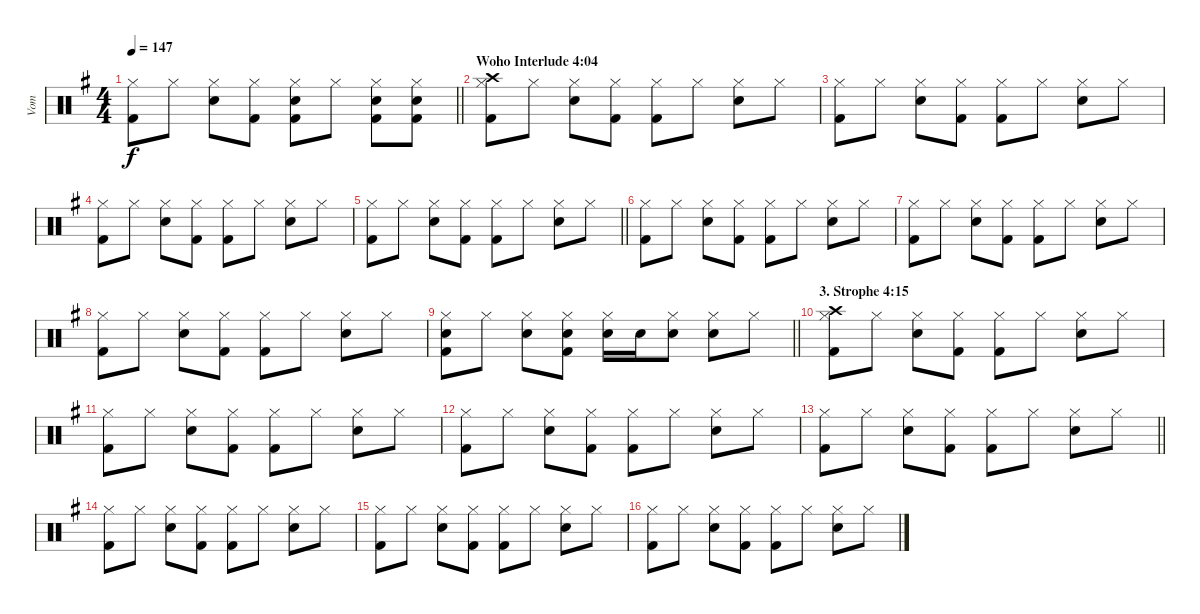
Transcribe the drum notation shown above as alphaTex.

\track ("Vom" "Vom") {instrument percussion}
\staff {score}
\articulation defaults
\ts (4 4)
\tempo 147
\clef neutral
\barLineRight lightlight
\ks g
("Hi-Hat (closed)" "Kick (hit) 2").8{dy f} "Hi-Hat (closed)".8 ("Hi-Hat (closed)" "Snare (hit) 2").8 ("Hi-Hat (closed)" "Kick (hit) 2").8 ("Hi-Hat (closed)" "Snare (hit) 2" "Kick (hit) 2").8 "Hi-Hat (closed)".8 ("Hi-Hat (closed)" "Snare (hit) 2" "Kick (hit) 2").8 ("Hi-Hat (closed)" "Snare (hit) 2" "Kick (hit) 2").8 |
\section ("" "Woho Interlude 4:04")
("Crash high (hit)" "Hi-Hat (closed)" "Kick (hit) 2").8 "Hi-Hat (closed)".8 ("Hi-Hat (closed)" "Snare (hit) 2").8 ("Hi-Hat (closed)" "Kick (hit) 2").8 ("Hi-Hat (closed)" "Kick (hit) 2").8 "Hi-Hat (closed)".8 ("Hi-Hat (closed)" "Snare (hit) 2").8 "Hi-Hat (closed)".8 |
("Hi-Hat (closed)" "Kick (hit) 2").8 "Hi-Hat (closed)".8 ("Hi-Hat (closed)" "Snare (hit) 2").8 ("Hi-Hat (closed)" "Kick (hit) 2").8 ("Hi-Hat (closed)" "Kick (hit) 2").8 "Hi-Hat (closed)".8 ("Hi-Hat (closed)" "Snare (hit) 2").8 "Hi-Hat (closed)".8 |
("Hi-Hat (closed)" "Kick (hit) 2").8 "Hi-Hat (closed)".8 ("Hi-Hat (closed)" "Snare (hit) 2").8 ("Hi-Hat (closed)" "Kick (hit) 2").8 ("Hi-Hat (closed)" "Kick (hit) 2").8 "Hi-Hat (closed)".8 ("Hi-Hat (closed)" "Snare (hit) 2").8 "Hi-Hat (closed)".8 |
\barLineRight lightlight
("Hi-Hat (closed)" "Kick (hit) 2").8 "Hi-Hat (closed)".8 ("Hi-Hat (closed)" "Snare (hit) 2").8 ("Hi-Hat (closed)" "Kick (hit) 2").8 ("Hi-Hat (closed)" "Kick (hit) 2").8 "Hi-Hat (closed)".8 ("Hi-Hat (closed)" "Snare (hit) 2").8 "Hi-Hat (closed)".8 |
("Hi-Hat (closed)" "Kick (hit) 2").8 "Hi-Hat (closed)".8 ("Hi-Hat (closed)" "Snare (hit) 2").8 ("Hi-Hat (closed)" "Kick (hit) 2").8 ("Hi-Hat (closed)" "Kick (hit) 2").8 "Hi-Hat (closed)".8 ("Hi-Hat (closed)" "Snare (hit) 2").8 "Hi-Hat (closed)".8 |
("Hi-Hat (closed)" "Kick (hit) 2").8 "Hi-Hat (closed)".8 ("Hi-Hat (closed)" "Snare (hit) 2").8 ("Hi-Hat (closed)" "Kick (hit) 2").8 ("Hi-Hat (closed)" "Kick (hit) 2").8 "Hi-Hat (closed)".8 ("Hi-Hat (closed)" "Snare (hit) 2").8 "Hi-Hat (closed)".8 |
("Hi-Hat (closed)" "Kick (hit) 2").8 "Hi-Hat (closed)".8 ("Hi-Hat (closed)" "Snare (hit) 2").8 ("Hi-Hat (closed)" "Kick (hit) 2").8 ("Hi-Hat (closed)" "Kick (hit) 2").8 "Hi-Hat (closed)".8 ("Hi-Hat (closed)" "Snare (hit) 2").8 "Hi-Hat (closed)".8 |
\barLineRight lightlight
("Hi-Hat (closed)" "Snare (hit) 2" "Kick (hit) 2").8 "Hi-Hat (closed)".8 ("Hi-Hat (closed)" "Snare (hit) 2").8 ("Hi-Hat (closed)" "Snare (hit) 2" "Kick (hit) 2").8 ("Hi-Hat (closed)" "Snare (hit) 2").16 "Snare (hit) 2".16 ("Hi-Hat (closed)" "Snare (hit) 2").8 ("Hi-Hat (closed)" "Snare (hit) 2").8 "Hi-Hat (closed)".8 |
\section ("" "3. Strophe 4:15")
("Crash high (hit)" "Hi-Hat (closed)" "Kick (hit) 2").8 "Hi-Hat (closed)".8 ("Hi-Hat (closed)" "Snare (hit) 2").8 ("Hi-Hat (closed)" "Kick (hit) 2").8 ("Hi-Hat (closed)" "Kick (hit) 2").8 "Hi-Hat (closed)".8 ("Hi-Hat (closed)" "Snare (hit) 2").8 "Hi-Hat (closed)".8 |
("Hi-Hat (closed)" "Kick (hit) 2").8 "Hi-Hat (closed)".8 ("Hi-Hat (closed)" "Snare (hit) 2").8 ("Hi-Hat (closed)" "Kick (hit) 2").8 ("Hi-Hat (closed)" "Kick (hit) 2").8 "Hi-Hat (closed)".8 ("Hi-Hat (closed)" "Snare (hit) 2").8 "Hi-Hat (closed)".8 |
("Hi-Hat (closed)" "Kick (hit) 2").8 "Hi-Hat (closed)".8 ("Hi-Hat (closed)" "Snare (hit) 2").8 ("Hi-Hat (closed)" "Kick (hit) 2").8 ("Hi-Hat (closed)" "Kick (hit) 2").8 "Hi-Hat (closed)".8 ("Hi-Hat (closed)" "Snare (hit) 2").8 "Hi-Hat (closed)".8 |
\barLineRight lightlight
("Hi-Hat (closed)" "Kick (hit) 2").8 "Hi-Hat (closed)".8 ("Hi-Hat (closed)" "Snare (hit) 2").8 ("Hi-Hat (closed)" "Kick (hit) 2").8 ("Hi-Hat (closed)" "Kick (hit) 2").8 "Hi-Hat (closed)".8 ("Hi-Hat (closed)" "Snare (hit) 2").8 "Hi-Hat (closed)".8 |
("Hi-Hat (closed)" "Kick (hit) 2").8 "Hi-Hat (closed)".8 ("Hi-Hat (closed)" "Snare (hit) 2").8 ("Hi-Hat (closed)" "Kick (hit) 2").8 ("Hi-Hat (closed)" "Kick (hit) 2").8 "Hi-Hat (closed)".8 ("Hi-Hat (closed)" "Snare (hit) 2").8 "Hi-Hat (closed)".8 |
("Hi-Hat (closed)" "Kick (hit) 2").8 "Hi-Hat (closed)".8 ("Hi-Hat (closed)" "Snare (hit) 2").8 ("Hi-Hat (closed)" "Kick (hit) 2").8 ("Hi-Hat (closed)" "Kick (hit) 2").8 "Hi-Hat (closed)".8 ("Hi-Hat (closed)" "Snare (hit) 2").8 "Hi-Hat (closed)".8 |
("Hi-Hat (closed)" "Kick (hit) 2").8 "Hi-Hat (closed)".8 ("Hi-Hat (closed)" "Snare (hit) 2").8 ("Hi-Hat (closed)" "Kick (hit) 2").8 ("Hi-Hat (closed)" "Kick (hit) 2").8 "Hi-Hat (closed)".8 ("Hi-Hat (closed)" "Snare (hit) 2").8 "Hi-Hat (closed)".8
